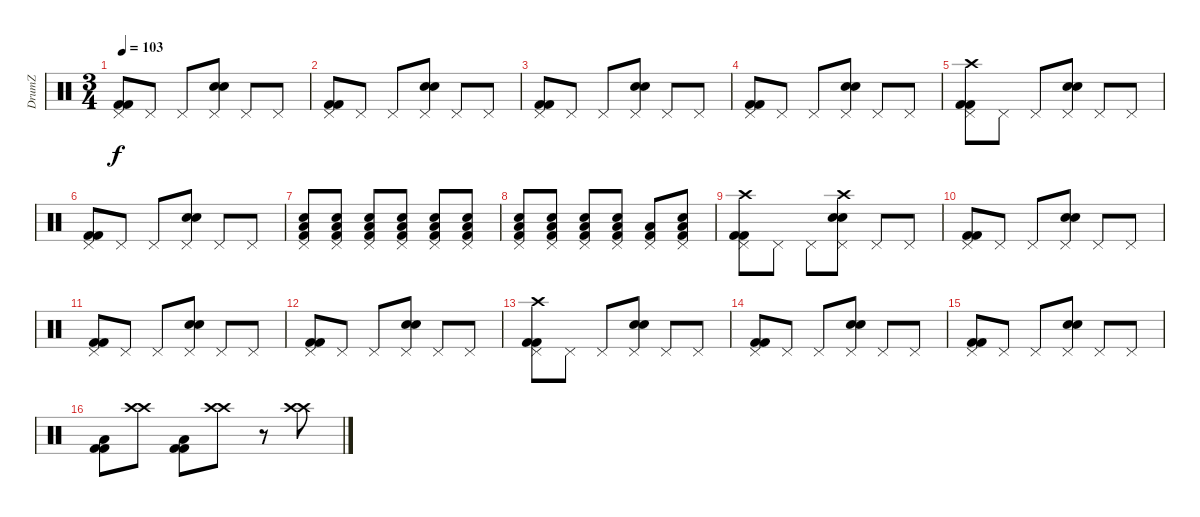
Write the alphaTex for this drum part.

\track ("DrumZ" "DrumZ") {instrument percussion}
\staff {score}
\articulation defaults
\ts (3 4)
\tempo 103
\clef neutral
\ks c
("Pedal Hi-Hat (hit)" "Kick (hit) 2" "Kick (hit) 2").8{dy f} "Pedal Hi-Hat (hit)".8 "Pedal Hi-Hat (hit)".8 ("Pedal Hi-Hat (hit)" "Electric Snare (hit)" "Electric Snare (hit)").8 "Pedal Hi-Hat (hit)".8 "Pedal Hi-Hat (hit)".8 |
("Pedal Hi-Hat (hit)" "Kick (hit) 2" "Kick (hit) 2").8 "Pedal Hi-Hat (hit)".8 "Pedal Hi-Hat (hit)".8 ("Pedal Hi-Hat (hit)" "Electric Snare (hit)" "Electric Snare (hit)").8 "Pedal Hi-Hat (hit)".8 "Pedal Hi-Hat (hit)".8 |
("Pedal Hi-Hat (hit)" "Kick (hit) 2" "Kick (hit) 2").8 "Pedal Hi-Hat (hit)".8 "Pedal Hi-Hat (hit)".8 ("Pedal Hi-Hat (hit)" "Electric Snare (hit)" "Electric Snare (hit)").8 "Pedal Hi-Hat (hit)".8 "Pedal Hi-Hat (hit)".8 |
("Pedal Hi-Hat (hit)" "Kick (hit) 2" "Kick (hit) 2").8 "Pedal Hi-Hat (hit)".8 "Pedal Hi-Hat (hit)".8 ("Pedal Hi-Hat (hit)" "Electric Snare (hit)" "Electric Snare (hit)").8 "Pedal Hi-Hat (hit)".8 "Pedal Hi-Hat (hit)".8 |
("Pedal Hi-Hat (hit)" "Crash high (hit)" "Kick (hit) 2" "Kick (hit) 2").8 "Pedal Hi-Hat (hit)".8 "Pedal Hi-Hat (hit)".8 ("Pedal Hi-Hat (hit)" "Electric Snare (hit)" "Electric Snare (hit)").8 "Pedal Hi-Hat (hit)".8 "Pedal Hi-Hat (hit)".8 |
("Pedal Hi-Hat (hit)" "Kick (hit) 2" "Kick (hit) 2").8 "Pedal Hi-Hat (hit)".8 "Pedal Hi-Hat (hit)".8 ("Pedal Hi-Hat (hit)" "Electric Snare (hit)" "Electric Snare (hit)").8 "Pedal Hi-Hat (hit)".8 "Pedal Hi-Hat (hit)".8 |
("Low Tom (hit)" "Pedal Hi-Hat (hit)" "Snare (hit) 2" "Kick (hit) 2").8 ("Low Tom (hit)" "Pedal Hi-Hat (hit)" "Snare (hit) 2" "Kick (hit) 2").8 ("Low Tom (hit)" "Pedal Hi-Hat (hit)" "Snare (hit) 2" "Kick (hit) 2").8 ("Low Tom (hit)" "Pedal Hi-Hat (hit)" "Snare (hit) 2" "Kick (hit) 2").8 ("Low Tom (hit)" "Pedal Hi-Hat (hit)" "Snare (hit) 2" "Kick (hit) 2").8 ("Low Tom (hit)" "Pedal Hi-Hat (hit)" "Snare (hit) 2" "Kick (hit) 2").8 |
("Low Tom (hit)" "Pedal Hi-Hat (hit)" "Snare (hit) 2" "Kick (hit) 2").8 ("Low Tom (hit)" "Pedal Hi-Hat (hit)" "Snare (hit) 2" "Kick (hit) 2").8 ("Low Tom (hit)" "Pedal Hi-Hat (hit)" "Snare (hit) 2" "Kick (hit) 2").8 ("Low Tom (hit)" "Pedal Hi-Hat (hit)" "Snare (hit) 2" "Kick (hit) 2").8 ("Low Tom (hit)" "Pedal Hi-Hat (hit)" "Kick (hit) 2").8 ("Low Tom (hit)" "Pedal Hi-Hat (hit)" "Snare (hit) 2" "Kick (hit) 2").8 |
("Pedal Hi-Hat (hit)" "Crash high (hit)" "Kick (hit) 2" "Kick (hit) 2").8 "Pedal Hi-Hat (hit)".8 "Pedal Hi-Hat (hit)".8 ("Pedal Hi-Hat (hit)" "Crash high (hit)" "Electric Snare (hit)" "Electric Snare (hit)").8 "Pedal Hi-Hat (hit)".8 "Pedal Hi-Hat (hit)".8 |
("Pedal Hi-Hat (hit)" "Kick (hit) 2" "Kick (hit) 2").8 "Pedal Hi-Hat (hit)".8 "Pedal Hi-Hat (hit)".8 ("Pedal Hi-Hat (hit)" "Electric Snare (hit)" "Electric Snare (hit)").8 "Pedal Hi-Hat (hit)".8 "Pedal Hi-Hat (hit)".8 |
("Pedal Hi-Hat (hit)" "Kick (hit) 2" "Kick (hit) 2").8 "Pedal Hi-Hat (hit)".8 "Pedal Hi-Hat (hit)".8 ("Pedal Hi-Hat (hit)" "Electric Snare (hit)" "Electric Snare (hit)").8 "Pedal Hi-Hat (hit)".8 "Pedal Hi-Hat (hit)".8 |
("Pedal Hi-Hat (hit)" "Kick (hit) 2" "Kick (hit) 2").8 "Pedal Hi-Hat (hit)".8 "Pedal Hi-Hat (hit)".8 ("Pedal Hi-Hat (hit)" "Electric Snare (hit)" "Electric Snare (hit)").8 "Pedal Hi-Hat (hit)".8 "Pedal Hi-Hat (hit)".8 |
("Pedal Hi-Hat (hit)" "Crash high (hit)" "Kick (hit) 2" "Kick (hit) 2").8 "Pedal Hi-Hat (hit)".8 "Pedal Hi-Hat (hit)".8 ("Pedal Hi-Hat (hit)" "Electric Snare (hit)" "Electric Snare (hit)").8 "Pedal Hi-Hat (hit)".8 "Pedal Hi-Hat (hit)".8 |
("Pedal Hi-Hat (hit)" "Kick (hit) 2" "Kick (hit) 2").8 "Pedal Hi-Hat (hit)".8 "Pedal Hi-Hat (hit)".8 ("Pedal Hi-Hat (hit)" "Electric Snare (hit)" "Electric Snare (hit)").8 "Pedal Hi-Hat (hit)".8 "Pedal Hi-Hat (hit)".8 |
("Pedal Hi-Hat (hit)" "Kick (hit) 2" "Kick (hit) 2").8 "Pedal Hi-Hat (hit)".8 "Pedal Hi-Hat (hit)".8 ("Pedal Hi-Hat (hit)" "Electric Snare (hit)" "Electric Snare (hit)").8 "Pedal Hi-Hat (hit)".8 "Pedal Hi-Hat (hit)".8 |
("Low Floor Tom (hit)" "Kick (hit) 2" "Kick (hit) 2").8 ("Crash high (hit)" "Crash high (hit)").8 ("Low Floor Tom (hit)" "Kick (hit) 2" "Kick (hit) 2").8 ("Crash high (hit)" "Crash high (hit)").8 r.8 ("Crash high (hit)" "Crash high (hit)").8
